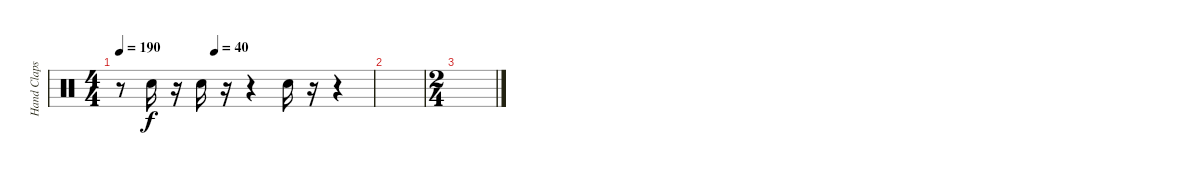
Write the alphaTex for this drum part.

\track ("Hand Claps" "Hand Claps") {instrument percussion}
\staff {score}
\articulation defaults
\ts (4 4)
\tempo 190
\tempo (40 0.375)
\clef neutral
\ks c
r.8{dy f} "Hand Clap (hit)".16 r.16 "Hand Clap (hit)".16 r.16 r.4 "Hand Clap (hit)".16 r.16 r.4 |
|
\ts (2 4)
